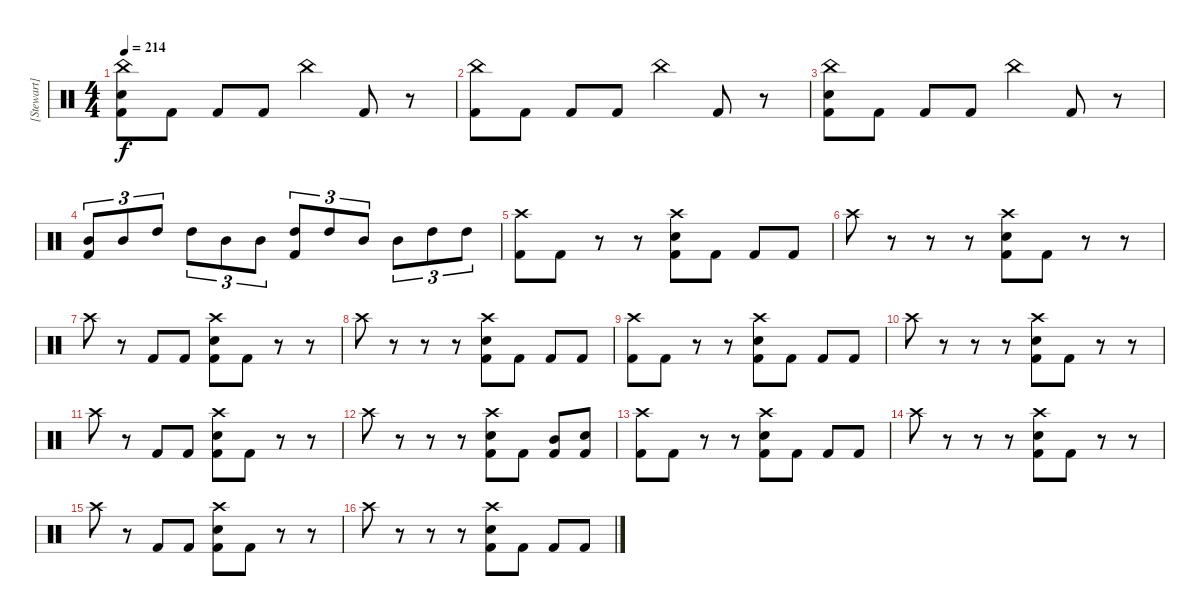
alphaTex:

\track ("[Stewart]" "[Stewart]") {instrument percussion}
\staff {score}
\articulation defaults
\ts (4 4)
\tempo 214
\clef neutral
\ks c
("China (hit)" "Electric Snare (hit)" "Kick (hit) 2").8{dy f} "Kick (hit) 2".8 "Kick (hit) 2".8 "Kick (hit) 2".8 "China (hit)".4 "Kick (hit) 2".8 r.8 |
("China (hit)" "Kick (hit) 2").8 "Kick (hit) 2".8 "Kick (hit) 2".8 "Kick (hit) 2".8 "China (hit)".4 "Kick (hit) 2".8 r.8 |
("China (hit)" "Electric Snare (hit)" "Kick (hit) 2").8 "Kick (hit) 2".8 "Kick (hit) 2".8 "Kick (hit) 2".8 "China (hit)".4 "Kick (hit) 2".8 r.8 |
("Mid Tom (hit)" "Kick (hit) 2").8{tu (3 2)} "Mid Tom (hit)".8{tu (3 2)} "High Tom (hit)".8{tu (3 2)} "High Tom (hit)".8{tu (3 2)} "Mid Tom (hit)".8{tu (3 2)} "Mid Tom (hit)".8{tu (3 2)} ("High Tom (hit)" "Kick (hit) 2").8{tu (3 2)} "High Tom (hit)".8{tu (3 2)} "Mid Tom (hit)".8{tu (3 2)} "Mid Tom (hit)".8{tu (3 2)} "High Tom (hit)".8{tu (3 2)} "High Tom (hit)".8{tu (3 2)} |
("Crash high (hit)" "Kick (hit) 2").8 "Kick (hit) 2".8 r.8 r.8 ("Crash high (hit)" "Electric Snare (hit)" "Kick (hit) 2").8 "Kick (hit) 2".8 "Kick (hit) 2".8 "Kick (hit) 2".8 |
"Crash high (hit)".8 r.8 r.8 r.8 ("Crash high (hit)" "Electric Snare (hit)" "Kick (hit) 2").8 "Kick (hit) 2".8 r.8 r.8 |
"Crash high (hit)".8 r.8 "Kick (hit) 2".8 "Kick (hit) 2".8 ("Crash high (hit)" "Electric Snare (hit)" "Kick (hit) 2").8 "Kick (hit) 2".8 r.8 r.8 |
"Crash high (hit)".8 r.8 r.8 r.8 ("Crash high (hit)" "Electric Snare (hit)" "Kick (hit) 2").8 "Kick (hit) 2".8 "Kick (hit) 2".8 "Kick (hit) 2".8 |
("Crash high (hit)" "Kick (hit) 2").8 "Kick (hit) 2".8 r.8 r.8 ("Crash high (hit)" "Electric Snare (hit)" "Kick (hit) 2").8 "Kick (hit) 2".8 "Kick (hit) 2".8 "Kick (hit) 2".8 |
"Crash high (hit)".8 r.8 r.8 r.8 ("Crash high (hit)" "Electric Snare (hit)" "Kick (hit) 2").8 "Kick (hit) 2".8 r.8 r.8 |
"Crash high (hit)".8 r.8 "Kick (hit) 2".8 "Kick (hit) 2".8 ("Crash high (hit)" "Electric Snare (hit)" "Kick (hit) 2").8 "Kick (hit) 2".8 r.8 r.8 |
"Crash high (hit)".8 r.8 r.8 r.8 ("Crash high (hit)" "Electric Snare (hit)" "Kick (hit) 2").8 "Kick (hit) 2".8 ("Mid Tom (hit)" "Kick (hit) 2").8 ("Electric Snare (hit)" "Kick (hit) 2").8 |
("Crash high (hit)" "Kick (hit) 2").8 "Kick (hit) 2".8 r.8 r.8 ("Crash high (hit)" "Electric Snare (hit)" "Kick (hit) 2").8 "Kick (hit) 2".8 "Kick (hit) 2".8 "Kick (hit) 2".8 |
"Crash high (hit)".8 r.8 r.8 r.8 ("Crash high (hit)" "Electric Snare (hit)" "Kick (hit) 2").8 "Kick (hit) 2".8 r.8 r.8 |
"Crash high (hit)".8 r.8 "Kick (hit) 2".8 "Kick (hit) 2".8 ("Crash high (hit)" "Electric Snare (hit)" "Kick (hit) 2").8 "Kick (hit) 2".8 r.8 r.8 |
"Crash high (hit)".8 r.8 r.8 r.8 ("Crash high (hit)" "Electric Snare (hit)" "Kick (hit) 2").8 "Kick (hit) 2".8 "Kick (hit) 2".8 "Kick (hit) 2".8
